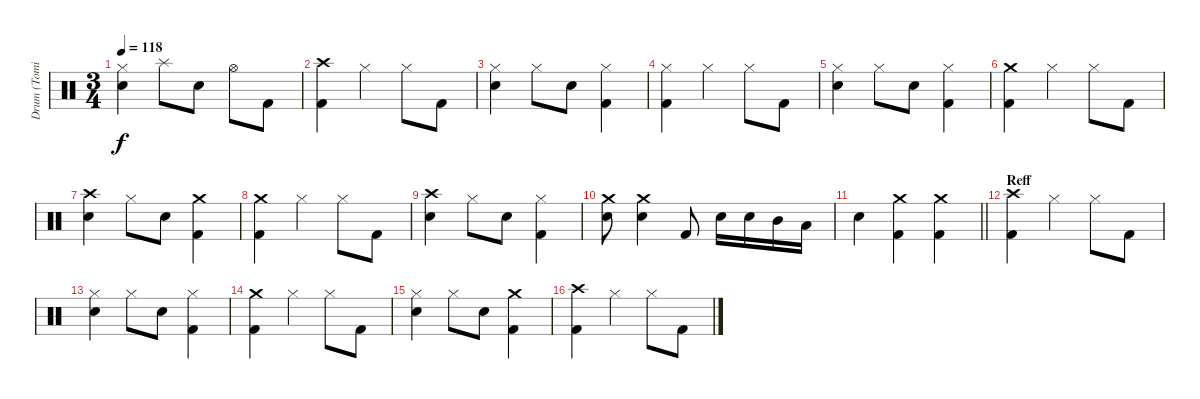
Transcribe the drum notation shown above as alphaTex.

\track ("Drum (Tomi)" "Drum (Tomi") {instrument percussion}
\staff {score}
\articulation defaults
\ts (3 4)
\tempo 118
\clef neutral
\ks c
("Hi-Hat (closed)" "Electric Snare (hit)").4{dy f} "Splash (hit)".8 "Electric Snare (hit)".8 "Hi-Hat (open)".8 "Kick (hit) 2".8 |
("Crash high (hit)" "Kick (hit) 2").4 "Hi-Hat (closed)".4 "Hi-Hat (closed)".8 "Kick (hit) 2".8 |
("Hi-Hat (closed)" "Electric Snare (hit)").4 "Hi-Hat (closed)".8 "Electric Snare (hit)".8 ("Hi-Hat (closed)" "Kick (hit) 2").4 |
("Hi-Hat (closed)" "Kick (hit) 2").4 "Hi-Hat (closed)".4 "Hi-Hat (closed)".8 "Kick (hit) 2".8 |
("Hi-Hat (closed)" "Electric Snare (hit)").4 "Hi-Hat (closed)".8 "Electric Snare (hit)".8 ("Hi-Hat (closed)" "Kick (hit) 2").4 |
("Crash medium (hit)" "Kick (hit) 2").4 "Hi-Hat (closed)".4 "Hi-Hat (closed)".8 "Kick (hit) 2".8 |
("Crash high (hit)" "Electric Snare (hit)").4 "Hi-Hat (closed)".8 "Electric Snare (hit)".8 ("Crash medium (hit)" "Kick (hit) 2").4 |
("Crash medium (hit)" "Kick (hit) 2").4 "Hi-Hat (closed)".4 "Hi-Hat (closed)".8 "Kick (hit) 2".8 |
("Crash high (hit)" "Electric Snare (hit)").4 "Hi-Hat (closed)".8 "Electric Snare (hit)".8 ("Hi-Hat (closed)" "Kick (hit) 2").4 |
("Crash medium (hit)" "Electric Snare (hit)").8 ("Crash medium (hit)" "Electric Snare (hit)").4 "Kick (hit) 2".8 "Electric Snare (hit)".16 "Electric Snare (hit)".16 "Mid Tom (hit)".16 "Low Tom (hit)".16 |
\barLineRight lightlight "Electric Snare (hit)".4
("Crash medium (hit)" "Kick (hit) 2").4 ("Crash medium (hit)" "Kick (hit) 2").4 |
\section ("" "Reff")
("Crash high (hit)" "Kick (hit) 2").4 "Hi-Hat (closed)".4 "Hi-Hat (closed)".8 "Kick (hit) 2".8 |
("Hi-Hat (closed)" "Electric Snare (hit)").4 "Hi-Hat (closed)".8 "Electric Snare (hit)".8 ("Hi-Hat (closed)" "Kick (hit) 2").4 |
("Crash medium (hit)" "Kick (hit) 2").4 "Hi-Hat (closed)".4 "Hi-Hat (closed)".8 "Kick (hit) 2".8 |
("Hi-Hat (closed)" "Electric Snare (hit)").4 "Hi-Hat (closed)".8 "Electric Snare (hit)".8 ("Crash medium (hit)" "Kick (hit) 2").4 |
("Crash high (hit)" "Kick (hit) 2").4 "Hi-Hat (closed)".4 "Hi-Hat (closed)".8 "Kick (hit) 2".8
